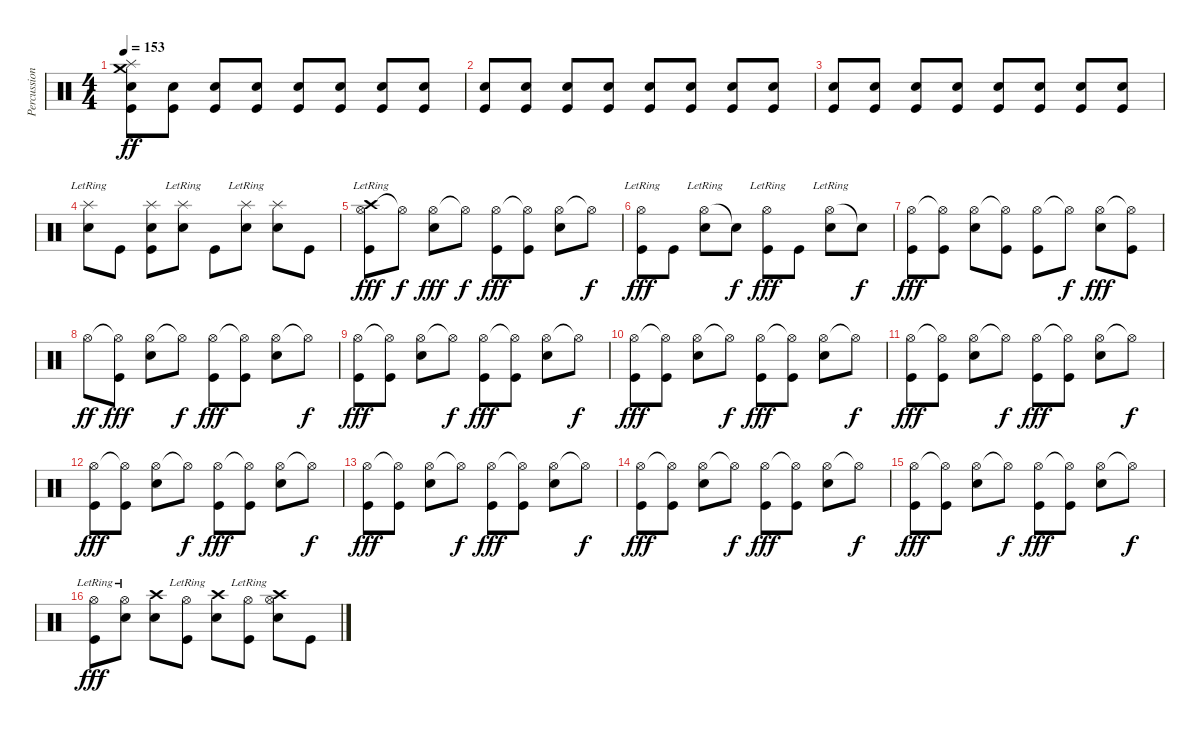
\track ("Percussion" "Percussion") {instrument percussion}
\staff {score}
\articulation defaults
\ts (4 4)
\tempo 153
\clef neutral
\ks c
("Crash medium (hit)" "Splash (hit)" "Snare (hit) 2" "Kick (hit)").8{dy ff} ("Snare (hit) 2" "Kick (hit)").8 ("Snare (hit) 2" "Kick (hit)").8 ("Snare (hit) 2" "Kick (hit)").8 ("Snare (hit) 2" "Kick (hit)").8 ("Snare (hit) 2" "Kick (hit)").8 ("Snare (hit) 2" "Kick (hit)").8 ("Snare (hit) 2" "Kick (hit)").8 |
("Snare (hit) 2" "Kick (hit)").8 ("Snare (hit) 2" "Kick (hit)").8 ("Snare (hit) 2" "Kick (hit)").8 ("Snare (hit) 2" "Kick (hit)").8 ("Snare (hit) 2" "Kick (hit)").8 ("Snare (hit) 2" "Kick (hit)").8 ("Snare (hit) 2" "Kick (hit)").8 ("Snare (hit) 2" "Kick (hit)").8 |
("Snare (hit) 2" "Kick (hit)").8 ("Snare (hit) 2" "Kick (hit)").8 ("Snare (hit) 2" "Kick (hit)").8 ("Snare (hit) 2" "Kick (hit)").8 ("Snare (hit) 2" "Kick (hit)").8 ("Snare (hit) 2" "Kick (hit)").8 ("Snare (hit) 2" "Kick (hit)").8 ("Snare (hit) 2" "Kick (hit)").8 |
("Splash (hit)"{lr} "Snare (hit) 2").8 "Kick (hit)".8 ("Splash (hit)" "Snare (hit) 2" "Kick (hit)").8 ("Splash (hit)"{lr} "Snare (hit) 2").8 "Kick (hit)".8 ("Splash (hit)"{lr} "Snare (hit) 2").8 ("Splash (hit)" "Snare (hit) 2").8 "Kick (hit)".8 |
("Crash high (hit)"{lr} "Hi-Hat (open)" "Kick (hit)").8{dy fff} "Hi-Hat (open)"{t}.8{dy f} ("Hi-Hat (open)" "Snare (hit) 2").8{dy fff} "Hi-Hat (open)"{t}.8{dy f} ("Hi-Hat (open)" "Kick (hit)").8{dy fff} ("Hi-Hat (open)"{t} "Kick (hit)").8 ("Hi-Hat (open)" "Snare (hit) 2").8 "Hi-Hat (open)"{t}.8{dy f} |
("Hi-Hat (open)"{lr} "Kick (hit)").8{dy fff} "Kick (hit)".8 ("Hi-Hat (open)"{lr} "Snare (hit) 2").8 "Snare (hit)"{t}.8{dy f} ("Hi-Hat (open)"{lr} "Kick (hit)").8{dy fff} "Kick (hit)".8 ("Hi-Hat (open)"{lr} "Snare (hit) 2").8 "Snare (hit)"{t}.8{dy f} |
("Hi-Hat (open)" "Kick (hit)").8{dy fff} ("Hi-Hat (open)"{t} "Kick (hit)").8 ("Hi-Hat (open)" "Snare (hit) 2").8 ("Hi-Hat (open)"{t} "Kick (hit)").8 ("Hi-Hat (open)" "Kick (hit)").8 "Hi-Hat (open)"{t}.8{dy f} ("Hi-Hat (open)" "Snare (hit) 2").8{dy fff} ("Hi-Hat (open)"{t} "Kick (hit)").8 |
"Hi-Hat (open)".8{dy ff} ("Hi-Hat (open)"{t} "Kick (hit)").8{dy fff} ("Hi-Hat (open)" "Snare (hit) 2").8 "Hi-Hat (open)"{t}.8{dy f} ("Hi-Hat (open)" "Kick (hit)").8{dy fff} ("Hi-Hat (open)"{t} "Kick (hit)").8 ("Hi-Hat (open)" "Snare (hit) 2").8 "Hi-Hat (open)"{t}.8{dy f} |
("Hi-Hat (open)" "Kick (hit)").8{dy fff} ("Hi-Hat (open)"{t} "Kick (hit)").8 ("Hi-Hat (open)" "Snare (hit) 2").8 "Hi-Hat (open)"{t}.8{dy f} ("Hi-Hat (open)" "Kick (hit)").8{dy fff} ("Hi-Hat (open)"{t} "Kick (hit)").8 ("Hi-Hat (open)" "Snare (hit) 2").8 "Hi-Hat (open)"{t}.8{dy f} |
("Hi-Hat (open)" "Kick (hit)").8{dy fff} ("Hi-Hat (open)"{t} "Kick (hit)").8 ("Hi-Hat (open)" "Snare (hit) 2").8 "Hi-Hat (open)"{t}.8{dy f} ("Hi-Hat (open)" "Kick (hit)").8{dy fff} ("Hi-Hat (open)"{t} "Kick (hit)").8 ("Hi-Hat (open)" "Snare (hit) 2").8 "Hi-Hat (open)"{t}.8{dy f} |
("Hi-Hat (open)" "Kick (hit)").8{dy fff} ("Hi-Hat (open)"{t} "Kick (hit)").8 ("Hi-Hat (open)" "Snare (hit) 2").8 "Hi-Hat (open)"{t}.8{dy f} ("Hi-Hat (open)" "Kick (hit)").8{dy fff} ("Hi-Hat (open)"{t} "Kick (hit)").8 ("Hi-Hat (open)" "Snare (hit) 2").8 "Hi-Hat (open)"{t}.8{dy f} |
("Hi-Hat (open)" "Kick (hit)").8{dy fff} ("Hi-Hat (open)"{t} "Kick (hit)").8 ("Hi-Hat (open)" "Snare (hit) 2").8 "Hi-Hat (open)"{t}.8{dy f} ("Hi-Hat (open)" "Kick (hit)").8{dy fff} ("Hi-Hat (open)"{t} "Kick (hit)").8 ("Hi-Hat (open)" "Snare (hit) 2").8 "Hi-Hat (open)"{t}.8{dy f} |
("Hi-Hat (open)" "Kick (hit)").8{dy fff} ("Hi-Hat (open)"{t} "Kick (hit)").8 ("Hi-Hat (open)" "Snare (hit) 2").8 "Hi-Hat (open)"{t}.8{dy f} ("Hi-Hat (open)" "Kick (hit)").8{dy fff} ("Hi-Hat (open)"{t} "Kick (hit)").8 ("Hi-Hat (open)" "Snare (hit) 2").8 "Hi-Hat (open)"{t}.8{dy f} |
("Hi-Hat (open)" "Kick (hit)").8{dy fff} ("Hi-Hat (open)"{t} "Kick (hit)").8 ("Hi-Hat (open)" "Snare (hit) 2").8 "Hi-Hat (open)"{t}.8{dy f} ("Hi-Hat (open)" "Kick (hit)").8{dy fff} ("Hi-Hat (open)"{t} "Kick (hit)").8 ("Hi-Hat (open)" "Snare (hit) 2").8 "Hi-Hat (open)"{t}.8{dy f} |
("Hi-Hat (open)" "Kick (hit)").8{dy fff} ("Hi-Hat (open)"{t} "Kick (hit)").8 ("Hi-Hat (open)" "Snare (hit) 2").8 "Hi-Hat (open)"{t}.8{dy f} ("Hi-Hat (open)" "Kick (hit)").8{dy fff} ("Hi-Hat (open)"{t} "Kick (hit)").8 ("Hi-Hat (open)" "Snare (hit) 2").8 "Hi-Hat (open)"{t}.8{dy f} |
("Hi-Hat (open)"{lr} "Kick (hit)").8{dy fff} ("Hi-Hat (open)"{lr} "Snare (hit) 2").8 ("Crash high (hit)" "Snare (hit) 2").8 ("Hi-Hat (open)"{lr} "Kick (hit)").8 ("Crash high (hit)" "Snare (hit) 2").8 ("Hi-Hat (open)"{lr} "Kick (hit)").8 ("Crash high (hit)" "Hi-Hat (open)"{lr} "Snare (hit) 2").8 "Kick (hit)".8
